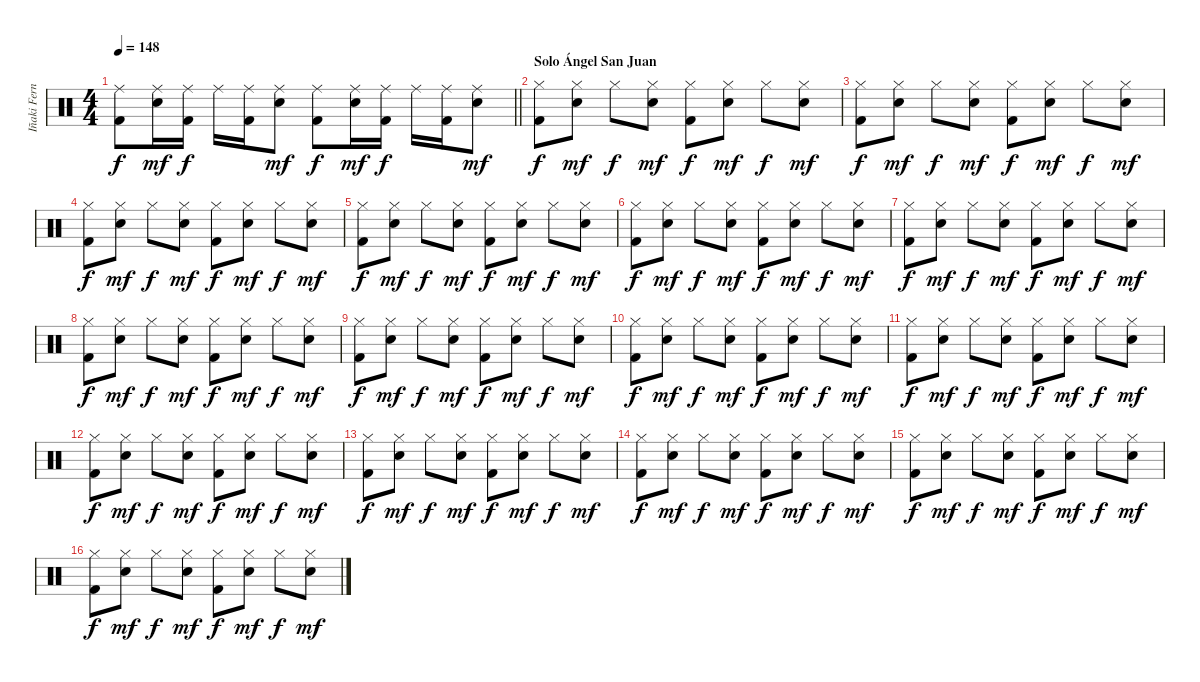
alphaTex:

\track ("Iñaki Fernández" "Iñaki Fern") {instrument percussion}
\staff {score}
\articulation defaults
\ts (4 4)
\tempo 148
\clef neutral
\barLineRight lightlight
\ks c
("Ride (middle)" "Kick (hit) 2").8{dy f} ("Ride (middle)" "Snare (hit) 2").16{dy mf} ("Ride (middle)" "Kick (hit) 2").16{dy f} "Ride (middle)".16 ("Ride (middle)" "Kick (hit) 2").16 ("Ride (middle)" "Snare (hit) 2").8{dy mf} ("Ride (middle)" "Kick (hit) 2").8{dy f} ("Ride (middle)" "Snare (hit) 2").16{dy mf} ("Ride (middle)" "Kick (hit) 2").16{dy f} "Ride (middle)".16 ("Ride (middle)" "Kick (hit) 2").16 ("Ride (middle)" "Snare (hit) 2").8{dy mf} |
\section ("" "Solo Ángel San Juan")
("Hi-Hat (closed)" "Kick (hit) 2").8{dy f} ("Hi-Hat (closed)" "Snare (hit) 2").8{dy mf} "Hi-Hat (closed)".8{dy f} ("Hi-Hat (closed)" "Snare (hit) 2").8{dy mf} ("Hi-Hat (closed)" "Kick (hit) 2").8{dy f} ("Hi-Hat (closed)" "Snare (hit) 2").8{dy mf} "Hi-Hat (closed)".8{dy f} ("Hi-Hat (closed)" "Snare (hit) 2").8{dy mf} |
("Hi-Hat (closed)" "Kick (hit) 2").8{dy f} ("Hi-Hat (closed)" "Snare (hit) 2").8{dy mf} "Hi-Hat (closed)".8{dy f} ("Hi-Hat (closed)" "Snare (hit) 2").8{dy mf} ("Hi-Hat (closed)" "Kick (hit) 2").8{dy f} ("Hi-Hat (closed)" "Snare (hit) 2").8{dy mf} "Hi-Hat (closed)".8{dy f} ("Hi-Hat (closed)" "Snare (hit) 2").8{dy mf} |
("Hi-Hat (closed)" "Kick (hit) 2").8{dy f} ("Hi-Hat (closed)" "Snare (hit) 2").8{dy mf} "Hi-Hat (closed)".8{dy f} ("Hi-Hat (closed)" "Snare (hit) 2").8{dy mf} ("Hi-Hat (closed)" "Kick (hit) 2").8{dy f} ("Hi-Hat (closed)" "Snare (hit) 2").8{dy mf} "Hi-Hat (closed)".8{dy f} ("Hi-Hat (closed)" "Snare (hit) 2").8{dy mf} |
("Hi-Hat (closed)" "Kick (hit) 2").8{dy f} ("Hi-Hat (closed)" "Snare (hit) 2").8{dy mf} "Hi-Hat (closed)".8{dy f} ("Hi-Hat (closed)" "Snare (hit) 2").8{dy mf} ("Hi-Hat (closed)" "Kick (hit) 2").8{dy f} ("Hi-Hat (closed)" "Snare (hit) 2").8{dy mf} "Hi-Hat (closed)".8{dy f} ("Hi-Hat (closed)" "Snare (hit) 2").8{dy mf} |
("Hi-Hat (closed)" "Kick (hit) 2").8{dy f} ("Hi-Hat (closed)" "Snare (hit) 2").8{dy mf} "Hi-Hat (closed)".8{dy f} ("Hi-Hat (closed)" "Snare (hit) 2").8{dy mf} ("Hi-Hat (closed)" "Kick (hit) 2").8{dy f} ("Hi-Hat (closed)" "Snare (hit) 2").8{dy mf} "Hi-Hat (closed)".8{dy f} ("Hi-Hat (closed)" "Snare (hit) 2").8{dy mf} |
("Hi-Hat (closed)" "Kick (hit) 2").8{dy f} ("Hi-Hat (closed)" "Snare (hit) 2").8{dy mf} "Hi-Hat (closed)".8{dy f} ("Hi-Hat (closed)" "Snare (hit) 2").8{dy mf} ("Hi-Hat (closed)" "Kick (hit) 2").8{dy f} ("Hi-Hat (closed)" "Snare (hit) 2").8{dy mf} "Hi-Hat (closed)".8{dy f} ("Hi-Hat (closed)" "Snare (hit) 2").8{dy mf} |
("Hi-Hat (closed)" "Kick (hit) 2").8{dy f} ("Hi-Hat (closed)" "Snare (hit) 2").8{dy mf} "Hi-Hat (closed)".8{dy f} ("Hi-Hat (closed)" "Snare (hit) 2").8{dy mf} ("Hi-Hat (closed)" "Kick (hit) 2").8{dy f} ("Hi-Hat (closed)" "Snare (hit) 2").8{dy mf} "Hi-Hat (closed)".8{dy f} ("Hi-Hat (closed)" "Snare (hit) 2").8{dy mf} |
("Hi-Hat (closed)" "Kick (hit) 2").8{dy f} ("Hi-Hat (closed)" "Snare (hit) 2").8{dy mf} "Hi-Hat (closed)".8{dy f} ("Hi-Hat (closed)" "Snare (hit) 2").8{dy mf} ("Hi-Hat (closed)" "Kick (hit) 2").8{dy f} ("Hi-Hat (closed)" "Snare (hit) 2").8{dy mf} "Hi-Hat (closed)".8{dy f} ("Hi-Hat (closed)" "Snare (hit) 2").8{dy mf} |
("Hi-Hat (closed)" "Kick (hit) 2").8{dy f} ("Hi-Hat (closed)" "Snare (hit) 2").8{dy mf} "Hi-Hat (closed)".8{dy f} ("Hi-Hat (closed)" "Snare (hit) 2").8{dy mf} ("Hi-Hat (closed)" "Kick (hit) 2").8{dy f} ("Hi-Hat (closed)" "Snare (hit) 2").8{dy mf} "Hi-Hat (closed)".8{dy f} ("Hi-Hat (closed)" "Snare (hit) 2").8{dy mf} |
("Hi-Hat (closed)" "Kick (hit) 2").8{dy f} ("Hi-Hat (closed)" "Snare (hit) 2").8{dy mf} "Hi-Hat (closed)".8{dy f} ("Hi-Hat (closed)" "Snare (hit) 2").8{dy mf} ("Hi-Hat (closed)" "Kick (hit) 2").8{dy f} ("Hi-Hat (closed)" "Snare (hit) 2").8{dy mf} "Hi-Hat (closed)".8{dy f} ("Hi-Hat (closed)" "Snare (hit) 2").8{dy mf} |
("Hi-Hat (closed)" "Kick (hit) 2").8{dy f} ("Hi-Hat (closed)" "Snare (hit) 2").8{dy mf} "Hi-Hat (closed)".8{dy f} ("Hi-Hat (closed)" "Snare (hit) 2").8{dy mf} ("Hi-Hat (closed)" "Kick (hit) 2").8{dy f} ("Hi-Hat (closed)" "Snare (hit) 2").8{dy mf} "Hi-Hat (closed)".8{dy f} ("Hi-Hat (closed)" "Snare (hit) 2").8{dy mf} |
("Hi-Hat (closed)" "Kick (hit) 2").8{dy f} ("Hi-Hat (closed)" "Snare (hit) 2").8{dy mf} "Hi-Hat (closed)".8{dy f} ("Hi-Hat (closed)" "Snare (hit) 2").8{dy mf} ("Hi-Hat (closed)" "Kick (hit) 2").8{dy f} ("Hi-Hat (closed)" "Snare (hit) 2").8{dy mf} "Hi-Hat (closed)".8{dy f} ("Hi-Hat (closed)" "Snare (hit) 2").8{dy mf} |
("Hi-Hat (closed)" "Kick (hit) 2").8{dy f} ("Hi-Hat (closed)" "Snare (hit) 2").8{dy mf} "Hi-Hat (closed)".8{dy f} ("Hi-Hat (closed)" "Snare (hit) 2").8{dy mf} ("Hi-Hat (closed)" "Kick (hit) 2").8{dy f} ("Hi-Hat (closed)" "Snare (hit) 2").8{dy mf} "Hi-Hat (closed)".8{dy f} ("Hi-Hat (closed)" "Snare (hit) 2").8{dy mf} |
("Hi-Hat (closed)" "Kick (hit) 2").8{dy f} ("Hi-Hat (closed)" "Snare (hit) 2").8{dy mf} "Hi-Hat (closed)".8{dy f} ("Hi-Hat (closed)" "Snare (hit) 2").8{dy mf} ("Hi-Hat (closed)" "Kick (hit) 2").8{dy f} ("Hi-Hat (closed)" "Snare (hit) 2").8{dy mf} "Hi-Hat (closed)".8{dy f} ("Hi-Hat (closed)" "Snare (hit) 2").8{dy mf} |
("Hi-Hat (closed)" "Kick (hit) 2").8{dy f} ("Hi-Hat (closed)" "Snare (hit) 2").8{dy mf} "Hi-Hat (closed)".8{dy f} ("Hi-Hat (closed)" "Snare (hit) 2").8{dy mf} ("Hi-Hat (closed)" "Kick (hit) 2").8{dy f} ("Hi-Hat (closed)" "Snare (hit) 2").8{dy mf} "Hi-Hat (closed)".8{dy f} ("Hi-Hat (closed)" "Snare (hit) 2").8{dy mf}
